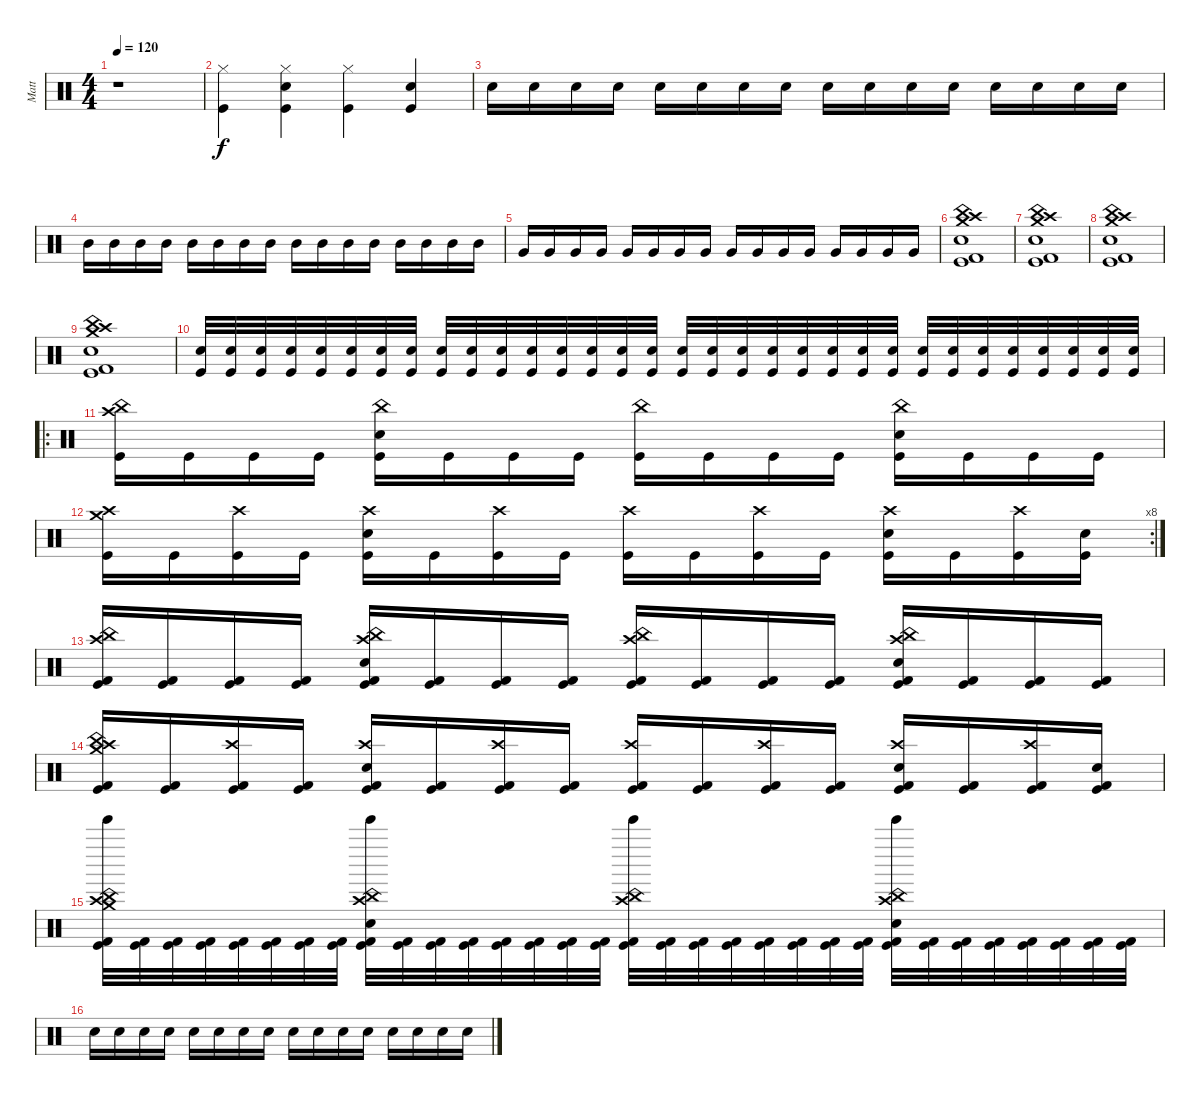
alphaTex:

\track ("Matt" "Matt") {instrument percussion}
\staff {score}
\articulation defaults
\ts (4 4)
\tempo 120
\clef neutral
\ks c
r.1{dy f} |
("Hi-Hat (closed)" "Kick (hit)").4 ("Electric Snare (hit)" "Hi-Hat (closed)" "Kick (hit)").4 ("Hi-Hat (closed)" "Kick (hit)").4 ("Electric Snare (hit)" "Kick (hit)").4 |
"Electric Snare (hit)".16 "Electric Snare (hit)".16 "Electric Snare (hit)".16 "Electric Snare (hit)".16 "Electric Snare (hit)".16 "Electric Snare (hit)".16 "Electric Snare (hit)".16 "Electric Snare (hit)".16 "Electric Snare (hit)".16 "Electric Snare (hit)".16 "Electric Snare (hit)".16 "Electric Snare (hit)".16 "Electric Snare (hit)".16 "Electric Snare (hit)".16 "Electric Snare (hit)".16 "Electric Snare (hit)".16 |
"Mid Tom (hit)".16 "Mid Tom (hit)".16 "Mid Tom (hit)".16 "Mid Tom (hit)".16 "Mid Tom (hit)".16 "Mid Tom (hit)".16 "Mid Tom (hit)".16 "Mid Tom (hit)".16 "Mid Tom (hit)".16 "Mid Tom (hit)".16 "Mid Tom (hit)".16 "Mid Tom (hit)".16 "Mid Tom (hit)".16 "Mid Tom (hit)".16 "Mid Tom (hit)".16 "Mid Tom (hit)".16 |
"Very Low Tom (hit)".16 "Very Low Tom (hit)".16 "Very Low Tom (hit)".16 "Very Low Tom (hit)".16 "Very Low Tom (hit)".16 "Very Low Tom (hit)".16 "Very Low Tom (hit)".16 "Very Low Tom (hit)".16 "Very Low Tom (hit)".16 "Very Low Tom (hit)".16 "Very Low Tom (hit)".16 "Very Low Tom (hit)".16 "Very Low Tom (hit)".16 "Very Low Tom (hit)".16 "Very Low Tom (hit)".16 "Very Low Tom (hit)".16 |
("Crash high (hit)" "Crash medium (hit)" "China (hit)" "Kick (hit)" "Kick (hit) 2" "Electric Snare (hit)").1 |
("Crash high (hit)" "Crash medium (hit)" "China (hit)" "Kick (hit)" "Kick (hit) 2" "Snare (hit) 2").1 |
("Crash high (hit)" "Crash medium (hit)" "China (hit)" "Kick (hit)" "Kick (hit) 2" "Electric Snare (hit)").1 |
("Crash high (hit)" "Crash medium (hit)" "China (hit)" "Kick (hit)" "Kick (hit) 2" "Snare (hit) 2").1 |
("Kick (hit)" "Electric Snare (hit)").32 ("Kick (hit)" "Electric Snare (hit)").32 ("Kick (hit)" "Electric Snare (hit)").32 ("Kick (hit)" "Electric Snare (hit)").32 ("Kick (hit)" "Electric Snare (hit)").32 ("Kick (hit)" "Electric Snare (hit)").32 ("Kick (hit)" "Electric Snare (hit)").32 ("Kick (hit)" "Electric Snare (hit)").32 ("Kick (hit)" "Electric Snare (hit)").32 ("Kick (hit)" "Electric Snare (hit)").32 ("Kick (hit)" "Electric Snare (hit)").32 ("Kick (hit)" "Electric Snare (hit)").32 ("Kick (hit)" "Electric Snare (hit)").32 ("Kick (hit)" "Electric Snare (hit)").32 ("Kick (hit)" "Electric Snare (hit)").32 ("Kick (hit)" "Electric Snare (hit)").32 ("Kick (hit)" "Electric Snare (hit)").32 ("Kick (hit)" "Electric Snare (hit)").32 ("Kick (hit)" "Electric Snare (hit)").32 ("Kick (hit)" "Electric Snare (hit)").32 ("Kick (hit)" "Electric Snare (hit)").32 ("Kick (hit)" "Electric Snare (hit)").32 ("Kick (hit)" "Electric Snare (hit)").32 ("Kick (hit)" "Electric Snare (hit)").32 ("Kick (hit)" "Electric Snare (hit)").32 ("Kick (hit)" "Electric Snare (hit)").32 ("Kick (hit)" "Electric Snare (hit)").32 ("Kick (hit)" "Electric Snare (hit)").32 ("Kick (hit)" "Electric Snare (hit)").32 ("Kick (hit)" "Electric Snare (hit)").32 ("Kick (hit)" "Electric Snare (hit)").32 ("Kick (hit)" "Electric Snare (hit)").32 |
\ro
("China (hit)" "Crash high (hit)" "Kick (hit)").16 "Kick (hit)".16 "Kick (hit)".16 "Kick (hit)".16 ("China (hit)" "Electric Snare (hit)" "Kick (hit)").16 "Kick (hit)".16 "Kick (hit)".16 "Kick (hit)".16 ("China (hit)" "Kick (hit)").16 "Kick (hit)".16 "Kick (hit)".16 "Kick (hit)".16 ("China (hit)" "Electric Snare (hit)" "Kick (hit)").16 "Kick (hit)".16 "Kick (hit)".16 "Kick (hit)".16 |
\rc 8
("Crash high (hit)" "Crash medium (hit)" "Kick (hit)").16 "Kick (hit)".16 ("Crash high (hit)" "Kick (hit)").16 "Kick (hit)".16 ("Crash high (hit)" "Electric Snare (hit)" "Kick (hit)").16 "Kick (hit)".16 ("Crash high (hit)" "Kick (hit)").16 "Kick (hit)".16 ("Crash high (hit)" "Kick (hit)").16 "Kick (hit)".16 ("Crash high (hit)" "Kick (hit)").16 "Kick (hit)".16 ("Crash high (hit)" "Electric Snare (hit)" "Kick (hit)").16 "Kick (hit)".16 ("Crash high (hit)" "Kick (hit)").16 ("Electric Snare (hit)" "Kick (hit)").16 |
("Crash high (hit)" "China (hit)" "Kick (hit) 2" "Kick (hit)").16 ("Kick (hit) 2" "Kick (hit)").16 ("Kick (hit) 2" "Kick (hit)").16 ("Kick (hit) 2" "Kick (hit)").16 ("Electric Snare (hit)" "Crash high (hit)" "China (hit)" "Kick (hit) 2" "Kick (hit)").16 ("Kick (hit) 2" "Kick (hit)").16 ("Kick (hit) 2" "Kick (hit)").16 ("Kick (hit) 2" "Kick (hit)").16 ("Crash high (hit)" "China (hit)" "Kick (hit) 2" "Kick (hit)").16 ("Kick (hit) 2" "Kick (hit)").16 ("Kick (hit) 2" "Kick (hit)").16 ("Kick (hit) 2" "Kick (hit)").16 ("Electric Snare (hit)" "China (hit)" "Crash high (hit)" "Kick (hit) 2" "Kick (hit)").16 ("Kick (hit) 2" "Kick (hit)").16 ("Kick (hit) 2" "Kick (hit)").16 ("Kick (hit) 2" "Kick (hit)").16 |
("China (hit)" "Crash medium (hit)" "Crash high (hit)" "Kick (hit) 2" "Kick (hit)").16 ("Kick (hit) 2" "Kick (hit)").16 ("Crash high (hit)" "Kick (hit) 2" "Kick (hit)").16 ("Kick (hit) 2" "Kick (hit)").16 ("Electric Snare (hit)" "Crash high (hit)" "Kick (hit) 2" "Kick (hit)").16 ("Kick (hit) 2" "Kick (hit)").16 ("Crash high (hit)" "Kick (hit) 2" "Kick (hit)").16 ("Kick (hit) 2" "Kick (hit)").16 ("Crash high (hit)" "Kick (hit) 2" "Kick (hit)").16 ("Kick (hit) 2" "Kick (hit)").16 ("Crash high (hit)" "Kick (hit) 2" "Kick (hit)").16 ("Kick (hit) 2" "Kick (hit)").16 ("Electric Snare (hit)" "Crash high (hit)" "Kick (hit) 2" "Kick (hit)").16 ("Kick (hit) 2" "Kick (hit)").16 ("Crash high (hit)" "Kick (hit) 2" "Kick (hit)").16 ("Electric Snare (hit)" "Kick (hit) 2" "Kick (hit)").16 |
("Tinkle Bell (hit)" "Crash medium (hit)" "China (hit)" "Crash high (hit)" "Kick (hit) 2" "Kick (hit)").32 ("Kick (hit) 2" "Kick (hit)").32 ("Kick (hit) 2" "Kick (hit)").32 ("Kick (hit) 2" "Kick (hit)").32 ("Kick (hit) 2" "Kick (hit)").32 ("Kick (hit) 2" "Kick (hit)").32 ("Kick (hit) 2" "Kick (hit)").32 ("Kick (hit) 2" "Kick (hit)").32 ("Electric Snare (hit)" "Tinkle Bell (hit)" "Crash high (hit)" "China (hit)" "Kick (hit) 2" "Kick (hit)").32 ("Kick (hit) 2" "Kick (hit)").32 ("Kick (hit) 2" "Kick (hit)").32 ("Kick (hit) 2" "Kick (hit)").32 ("Kick (hit) 2" "Kick (hit)").32 ("Kick (hit) 2" "Kick (hit)").32 ("Kick (hit) 2" "Kick (hit)").32 ("Kick (hit) 2" "Kick (hit)").32 ("Tinkle Bell (hit)" "Crash high (hit)" "China (hit)" "Kick (hit) 2" "Kick (hit)").32 ("Kick (hit) 2" "Kick (hit)").32 ("Kick (hit) 2" "Kick (hit)").32 ("Kick (hit) 2" "Kick (hit)").32 ("Kick (hit) 2" "Kick (hit)").32 ("Kick (hit) 2" "Kick (hit)").32 ("Kick (hit) 2" "Kick (hit)").32 ("Kick (hit) 2" "Kick (hit)").32 ("Electric Snare (hit)" "Tinkle Bell (hit)" "Crash high (hit)" "China (hit)" "Kick (hit) 2" "Kick (hit)").32 ("Kick (hit) 2" "Kick (hit)").32 ("Kick (hit) 2" "Kick (hit)").32 ("Kick (hit) 2" "Kick (hit)").32 ("Kick (hit) 2" "Kick (hit)").32 ("Kick (hit) 2" "Kick (hit)").32 ("Kick (hit) 2" "Kick (hit)").32 ("Kick (hit) 2" "Kick (hit)").32 |
"Electric Snare (hit)".16 "Electric Snare (hit)".16 "Electric Snare (hit)".16 "Electric Snare (hit)".16 "Electric Snare (hit)".16 "Electric Snare (hit)".16 "Electric Snare (hit)".16 "Electric Snare (hit)".16 "Electric Snare (hit)".16 "Electric Snare (hit)".16 "Electric Snare (hit)".16 "Electric Snare (hit)".16 "Electric Snare (hit)".16 "Electric Snare (hit)".16 "Electric Snare (hit)".16 "Electric Snare (hit)".16
